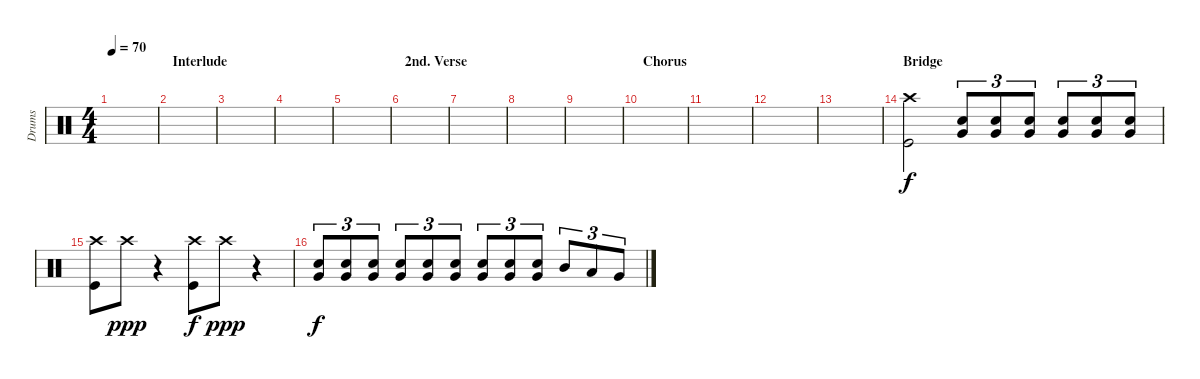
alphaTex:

\track ("Drums" "Drums") {instrument percussion}
\staff {score}
\articulation defaults
\ts (4 4)
\tempo 70
\clef neutral
\ks c
|
\section ("" "Interlude")
|
|
|
|
\section ("" "2nd. Verse")
|
|
|
|
\section ("" "Chorus")
|
|
|
|
\section ("" "Bridge")
("Crash high (hit)" "Kick (hit)").2 ("Electric Snare (hit)" "Very Low Tom (hit)").8{tu (3 2)} ("Electric Snare (hit)" "Very Low Tom (hit)").8{tu (3 2)} ("Electric Snare (hit)" "Very Low Tom (hit)").8{tu (3 2)} ("Electric Snare (hit)" "Very Low Tom (hit)").8{tu (3 2)} ("Electric Snare (hit)" "Very Low Tom (hit)").8{tu (3 2)} ("Electric Snare (hit)" "Very Low Tom (hit)").8{tu (3 2)} |
("Crash high (hit)" "Kick (hit)").8 "Crash high (hit)".8{dy ppp} r.4 ("Crash high (hit)" "Kick (hit)").8{dy f} "Crash high (hit)".8{dy ppp} r.4 |
("Electric Snare (hit)" "Very Low Tom (hit)").8{tu (3 2) dy f} ("Electric Snare (hit)" "Very Low Tom (hit)").8{tu (3 2)} ("Electric Snare (hit)" "Very Low Tom (hit)").8{tu (3 2)} ("Electric Snare (hit)" "Very Low Tom (hit)").8{tu (3 2)} ("Electric Snare (hit)" "Very Low Tom (hit)").8{tu (3 2)} ("Electric Snare (hit)" "Very Low Tom (hit)").8{tu (3 2)} ("Electric Snare (hit)" "Very Low Tom (hit)").8{tu (3 2)} ("Electric Snare (hit)" "Very Low Tom (hit)").8{tu (3 2)} ("Electric Snare (hit)" "Very Low Tom (hit)").8{tu (3 2)} "Mid Tom (hit)".8{tu (3 2)} "Low Tom (hit)".8{tu (3 2)} "Very Low Tom (hit)".8{tu (3 2)}
